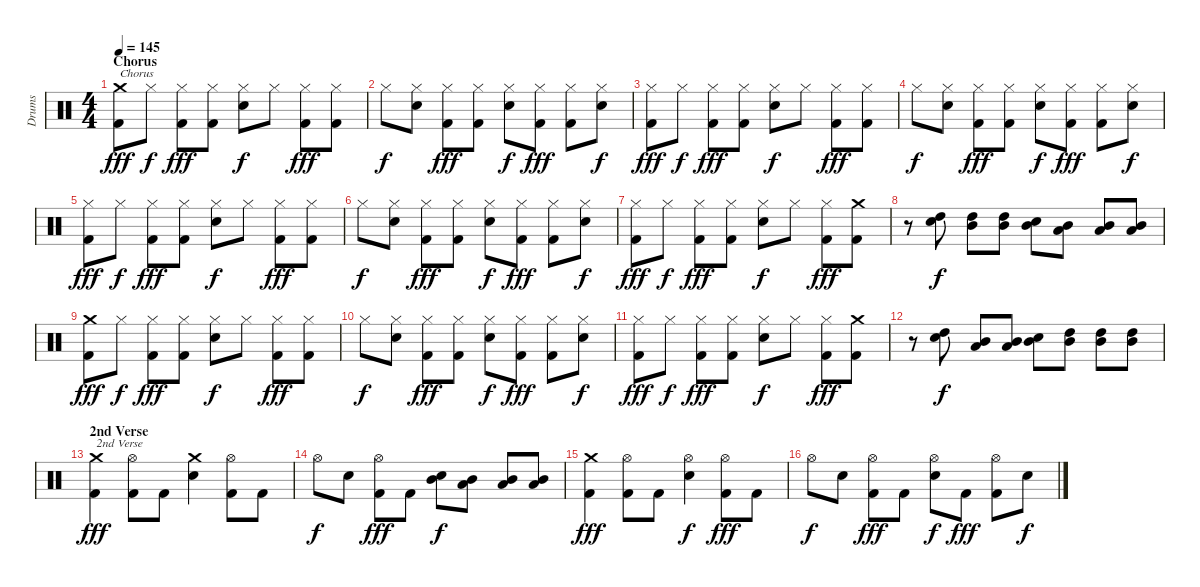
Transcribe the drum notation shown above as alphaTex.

\track ("Drums" "Drums") {instrument percussion}
\staff {score}
\articulation defaults
\ts (4 4)
\section ("" "Chorus")
\tempo 145
\clef neutral
\ks c
("Crash medium (hit)" "Kick (hit) 2").8{txt "Chorus" dy fff} "Hi-Hat (closed)".8{dy f} ("Hi-Hat (closed)" "Kick (hit) 2").8{dy fff} ("Hi-Hat (closed)" "Kick (hit) 2").8 ("Hi-Hat (closed)" "Snare (hit) 2").8{dy f} "Hi-Hat (closed)".8 ("Hi-Hat (closed)" "Kick (hit) 2").8{dy fff} ("Hi-Hat (closed)" "Kick (hit) 2").8 |
"Hi-Hat (closed)".8{dy f} ("Hi-Hat (closed)" "Snare (hit) 2").8 ("Hi-Hat (closed)" "Kick (hit) 2").8{dy fff} ("Hi-Hat (closed)" "Kick (hit) 2").8 ("Hi-Hat (closed)" "Snare (hit) 2").8{dy f} ("Hi-Hat (closed)" "Kick (hit) 2").8{dy fff} ("Hi-Hat (closed)" "Kick (hit) 2").8 ("Hi-Hat (closed)" "Snare (hit) 2").8{dy f} |
("Hi-Hat (closed)" "Kick (hit) 2").8{dy fff} "Hi-Hat (closed)".8{dy f} ("Hi-Hat (closed)" "Kick (hit) 2").8{dy fff} ("Hi-Hat (closed)" "Kick (hit) 2").8 ("Hi-Hat (closed)" "Snare (hit) 2").8{dy f} "Hi-Hat (closed)".8 ("Hi-Hat (closed)" "Kick (hit) 2").8{dy fff} ("Hi-Hat (closed)" "Kick (hit) 2").8 |
"Hi-Hat (closed)".8{dy f} ("Hi-Hat (closed)" "Snare (hit) 2").8 ("Hi-Hat (closed)" "Kick (hit) 2").8{dy fff} ("Hi-Hat (closed)" "Kick (hit) 2").8 ("Hi-Hat (closed)" "Snare (hit) 2").8{dy f} ("Hi-Hat (closed)" "Kick (hit) 2").8{dy fff} ("Hi-Hat (closed)" "Kick (hit) 2").8 ("Hi-Hat (closed)" "Snare (hit) 2").8{dy f} |
("Hi-Hat (closed)" "Kick (hit) 2").8{dy fff} "Hi-Hat (closed)".8{dy f} ("Hi-Hat (closed)" "Kick (hit) 2").8{dy fff} ("Hi-Hat (closed)" "Kick (hit) 2").8 ("Hi-Hat (closed)" "Snare (hit) 2").8{dy f} "Hi-Hat (closed)".8 ("Hi-Hat (closed)" "Kick (hit) 2").8{dy fff} ("Hi-Hat (closed)" "Kick (hit) 2").8 |
"Hi-Hat (closed)".8{dy f} ("Hi-Hat (closed)" "Snare (hit) 2").8 ("Hi-Hat (closed)" "Kick (hit) 2").8{dy fff} ("Hi-Hat (closed)" "Kick (hit) 2").8 ("Hi-Hat (closed)" "Snare (hit) 2").8{dy f} ("Hi-Hat (closed)" "Kick (hit) 2").8{dy fff} ("Hi-Hat (closed)" "Kick (hit) 2").8 ("Hi-Hat (closed)" "Snare (hit) 2").8{dy f} |
("Hi-Hat (closed)" "Kick (hit) 2").8{dy fff} "Hi-Hat (closed)".8{dy f} ("Hi-Hat (closed)" "Kick (hit) 2").8{dy fff} ("Hi-Hat (closed)" "Kick (hit) 2").8 ("Hi-Hat (closed)" "Snare (hit) 2").8{dy f} "Hi-Hat (closed)".8 ("Hi-Hat (closed)" "Kick (hit) 2").8{dy fff} ("Crash medium (hit)" "Kick (hit) 2").8 |
r.8 ("Snare (hit) 2" "High Tom (hit)").8{dy f} ("High Tom (hit)" "Mid Tom (hit)").8 ("High Tom (hit)" "Mid Tom (hit)").8 ("Snare (hit) 2" "Mid Tom (hit)").8 ("Mid Tom (hit)" "Low Tom (hit)").8 ("Mid Tom (hit)" "Low Tom (hit)").8 ("Mid Tom (hit)" "Low Tom (hit)").8 |
("Crash medium (hit)" "Kick (hit) 2").8{dy fff} "Hi-Hat (closed)".8{dy f} ("Hi-Hat (closed)" "Kick (hit) 2").8{dy fff} ("Hi-Hat (closed)" "Kick (hit) 2").8 ("Hi-Hat (closed)" "Snare (hit) 2").8{dy f} "Hi-Hat (closed)".8 ("Hi-Hat (closed)" "Kick (hit) 2").8{dy fff} ("Hi-Hat (closed)" "Kick (hit) 2").8 |
"Hi-Hat (closed)".8{dy f} ("Hi-Hat (closed)" "Snare (hit) 2").8 ("Hi-Hat (closed)" "Kick (hit) 2").8{dy fff} ("Hi-Hat (closed)" "Kick (hit) 2").8 ("Hi-Hat (closed)" "Snare (hit) 2").8{dy f} ("Hi-Hat (closed)" "Kick (hit) 2").8{dy fff} ("Hi-Hat (closed)" "Kick (hit) 2").8 ("Hi-Hat (closed)" "Snare (hit) 2").8{dy f} |
("Hi-Hat (closed)" "Kick (hit) 2").8{dy fff} "Hi-Hat (closed)".8{dy f} ("Hi-Hat (closed)" "Kick (hit) 2").8{dy fff} ("Hi-Hat (closed)" "Kick (hit) 2").8 ("Hi-Hat (closed)" "Snare (hit) 2").8{dy f} "Hi-Hat (closed)".8 ("Hi-Hat (closed)" "Kick (hit) 2").8{dy fff} ("Crash medium (hit)" "Kick (hit) 2").8 |
r.8 ("Snare (hit) 2" "High Tom (hit)").8{dy f} ("Mid Tom (hit)" "Low Tom (hit)").8 ("Mid Tom (hit)" "Low Tom (hit)").8 ("Snare (hit) 2" "Mid Tom (hit)").8 ("High Tom (hit)" "Mid Tom (hit)").8 ("High Tom (hit)" "Mid Tom (hit)").8 ("High Tom (hit)" "Mid Tom (hit)").8 |
\section ("" "2nd Verse")
("Crash medium (hit)" "Kick (hit) 2").4{txt "2nd Verse" dy fff} ("Hi-Hat (open)" "Kick (hit) 2").8 "Kick (hit) 2".8 ("Crash medium (hit)" "Snare (hit) 2").4 ("Hi-Hat (open)" "Kick (hit) 2").8 "Kick (hit) 2".8 |
"Hi-Hat (open)".8{dy f} "Snare (hit) 2".8 ("Hi-Hat (open)" "Kick (hit) 2").8{dy fff} "Kick (hit) 2".8 ("Snare (hit) 2" "Mid Tom (hit)").8{dy f} ("Mid Tom (hit)" "Low Tom (hit)").8 ("Mid Tom (hit)" "Low Tom (hit)").8 ("Mid Tom (hit)" "Low Tom (hit)").8 |
("Crash medium (hit)" "Kick (hit) 2").4{dy fff} ("Hi-Hat (open)" "Kick (hit) 2").8 "Kick (hit) 2".8 ("Hi-Hat (open)" "Snare (hit) 2").4{dy f} ("Hi-Hat (open)" "Kick (hit) 2").8{dy fff} "Kick (hit) 2".8 |
"Hi-Hat (open)".8{dy f} "Snare (hit) 2".8 ("Hi-Hat (open)" "Kick (hit) 2").8{dy fff} "Kick (hit) 2".8 ("Hi-Hat (open)" "Snare (hit) 2").8{dy f} "Kick (hit) 2".8{dy fff} ("Hi-Hat (open)" "Kick (hit) 2").8 "Snare (hit) 2".8{dy f}
